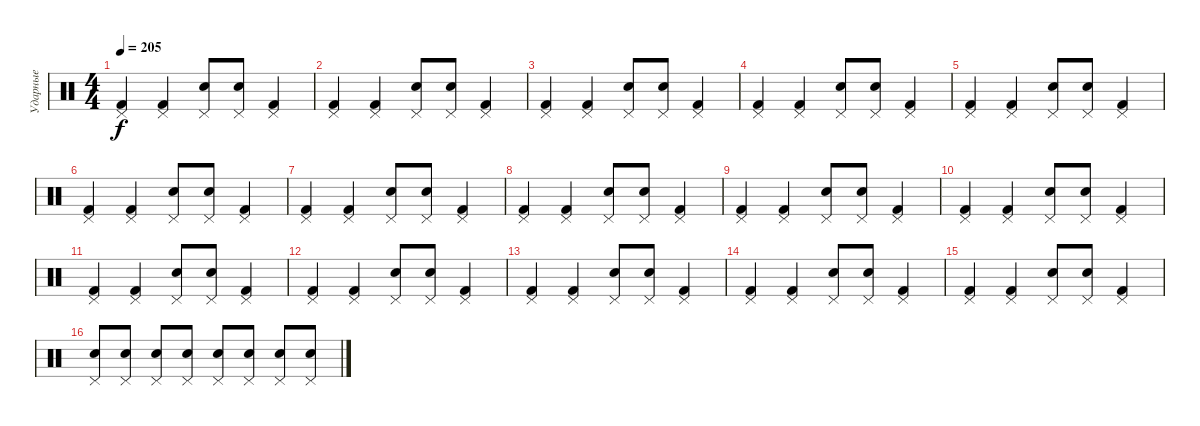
\track ("Ударные" "Ударные") {instrument percussion}
\staff {score}
\articulation defaults
\ts (4 4)
\tempo 205
\clef neutral
\ks c
("Pedal Hi-Hat (hit)" "Kick (hit) 2").4{dy f} ("Pedal Hi-Hat (hit)" "Kick (hit) 2").4 ("Pedal Hi-Hat (hit)" "Snare (hit) 2").8 ("Pedal Hi-Hat (hit)" "Snare (hit) 2").8 ("Pedal Hi-Hat (hit)" "Kick (hit) 2").4 |
("Pedal Hi-Hat (hit)" "Kick (hit) 2").4 ("Pedal Hi-Hat (hit)" "Kick (hit) 2").4 ("Pedal Hi-Hat (hit)" "Snare (hit) 2").8 ("Pedal Hi-Hat (hit)" "Snare (hit) 2").8 ("Pedal Hi-Hat (hit)" "Kick (hit) 2").4 |
("Pedal Hi-Hat (hit)" "Kick (hit) 2").4 ("Pedal Hi-Hat (hit)" "Kick (hit) 2").4 ("Pedal Hi-Hat (hit)" "Snare (hit) 2").8 ("Pedal Hi-Hat (hit)" "Snare (hit) 2").8 ("Pedal Hi-Hat (hit)" "Kick (hit) 2").4 |
("Pedal Hi-Hat (hit)" "Kick (hit) 2").4 ("Pedal Hi-Hat (hit)" "Kick (hit) 2").4 ("Pedal Hi-Hat (hit)" "Snare (hit) 2").8 ("Pedal Hi-Hat (hit)" "Snare (hit) 2").8 ("Pedal Hi-Hat (hit)" "Kick (hit) 2").4 |
("Pedal Hi-Hat (hit)" "Kick (hit) 2").4 ("Pedal Hi-Hat (hit)" "Kick (hit) 2").4 ("Pedal Hi-Hat (hit)" "Snare (hit) 2").8 ("Pedal Hi-Hat (hit)" "Snare (hit) 2").8 ("Pedal Hi-Hat (hit)" "Kick (hit) 2").4 |
("Pedal Hi-Hat (hit)" "Kick (hit) 2").4 ("Pedal Hi-Hat (hit)" "Kick (hit) 2").4 ("Pedal Hi-Hat (hit)" "Snare (hit) 2").8 ("Pedal Hi-Hat (hit)" "Snare (hit) 2").8 ("Pedal Hi-Hat (hit)" "Kick (hit) 2").4 |
("Pedal Hi-Hat (hit)" "Kick (hit) 2").4 ("Pedal Hi-Hat (hit)" "Kick (hit) 2").4 ("Pedal Hi-Hat (hit)" "Snare (hit) 2").8 ("Pedal Hi-Hat (hit)" "Snare (hit) 2").8 ("Pedal Hi-Hat (hit)" "Kick (hit) 2").4 |
("Pedal Hi-Hat (hit)" "Kick (hit) 2").4 ("Pedal Hi-Hat (hit)" "Kick (hit) 2").4 ("Pedal Hi-Hat (hit)" "Snare (hit) 2").8 ("Pedal Hi-Hat (hit)" "Snare (hit) 2").8 ("Pedal Hi-Hat (hit)" "Kick (hit) 2").4 |
("Pedal Hi-Hat (hit)" "Kick (hit) 2").4 ("Pedal Hi-Hat (hit)" "Kick (hit) 2").4 ("Pedal Hi-Hat (hit)" "Snare (hit) 2").8 ("Pedal Hi-Hat (hit)" "Snare (hit) 2").8 ("Pedal Hi-Hat (hit)" "Kick (hit) 2").4 |
("Pedal Hi-Hat (hit)" "Kick (hit) 2").4 ("Pedal Hi-Hat (hit)" "Kick (hit) 2").4 ("Pedal Hi-Hat (hit)" "Snare (hit) 2").8 ("Pedal Hi-Hat (hit)" "Snare (hit) 2").8 ("Pedal Hi-Hat (hit)" "Kick (hit) 2").4 |
("Pedal Hi-Hat (hit)" "Kick (hit) 2").4 ("Pedal Hi-Hat (hit)" "Kick (hit) 2").4 ("Pedal Hi-Hat (hit)" "Snare (hit) 2").8 ("Pedal Hi-Hat (hit)" "Snare (hit) 2").8 ("Pedal Hi-Hat (hit)" "Kick (hit) 2").4 |
("Pedal Hi-Hat (hit)" "Kick (hit) 2").4 ("Pedal Hi-Hat (hit)" "Kick (hit) 2").4 ("Pedal Hi-Hat (hit)" "Snare (hit) 2").8 ("Pedal Hi-Hat (hit)" "Snare (hit) 2").8 ("Pedal Hi-Hat (hit)" "Kick (hit) 2").4 |
("Pedal Hi-Hat (hit)" "Kick (hit) 2").4 ("Pedal Hi-Hat (hit)" "Kick (hit) 2").4 ("Pedal Hi-Hat (hit)" "Snare (hit) 2").8 ("Pedal Hi-Hat (hit)" "Snare (hit) 2").8 ("Pedal Hi-Hat (hit)" "Kick (hit) 2").4 |
("Pedal Hi-Hat (hit)" "Kick (hit) 2").4 ("Pedal Hi-Hat (hit)" "Kick (hit) 2").4 ("Pedal Hi-Hat (hit)" "Snare (hit) 2").8 ("Pedal Hi-Hat (hit)" "Snare (hit) 2").8 ("Pedal Hi-Hat (hit)" "Kick (hit) 2").4 |
("Pedal Hi-Hat (hit)" "Kick (hit) 2").4 ("Pedal Hi-Hat (hit)" "Kick (hit) 2").4 ("Pedal Hi-Hat (hit)" "Snare (hit) 2").8 ("Pedal Hi-Hat (hit)" "Snare (hit) 2").8 ("Pedal Hi-Hat (hit)" "Kick (hit) 2").4 |
("Pedal Hi-Hat (hit)" "Snare (hit) 2").8 ("Pedal Hi-Hat (hit)" "Snare (hit) 2").8 ("Pedal Hi-Hat (hit)" "Snare (hit) 2").8 ("Pedal Hi-Hat (hit)" "Snare (hit) 2").8 ("Pedal Hi-Hat (hit)" "Snare (hit) 2").8 ("Pedal Hi-Hat (hit)" "Snare (hit) 2").8 ("Pedal Hi-Hat (hit)" "Snare (hit) 2").8 ("Pedal Hi-Hat (hit)" "Snare (hit) 2").8
